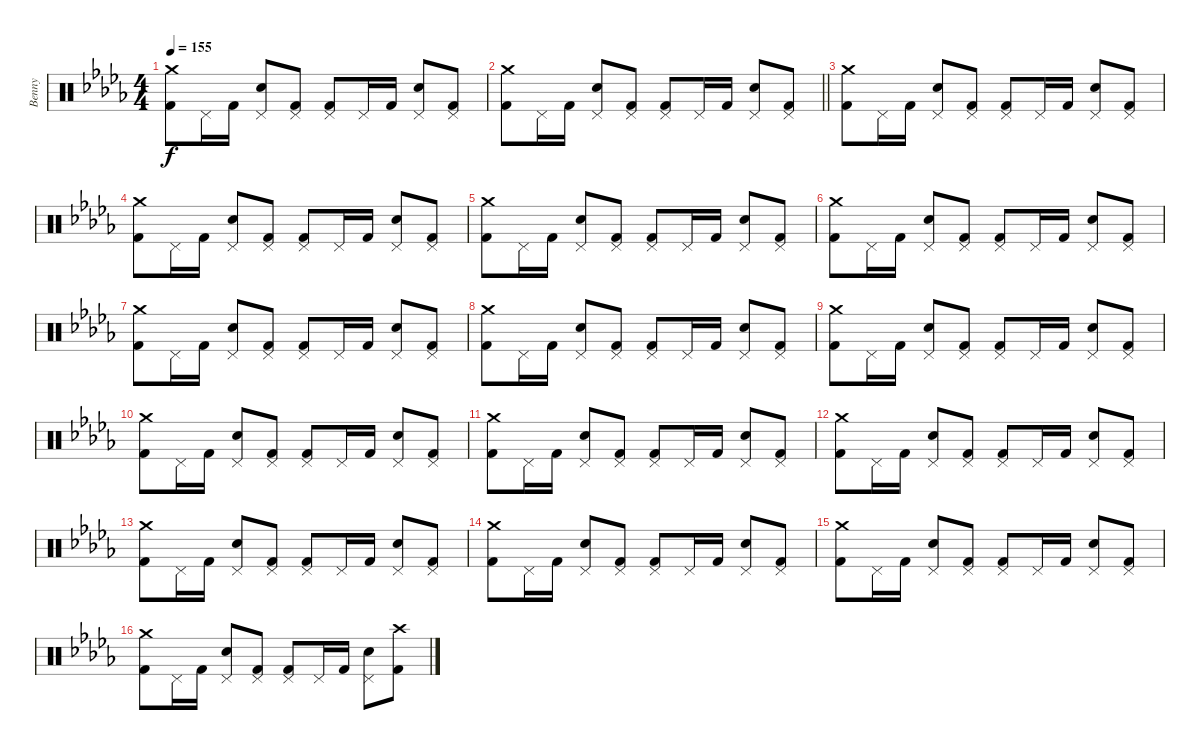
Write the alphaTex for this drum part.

\track ("Benny" "Benny") {instrument percussion}
\staff {score}
\articulation defaults
\ts (4 4)
\tempo 155
\clef neutral
\ks db
("Crash medium (hit)" "Kick (hit) 2").8{dy f} "Pedal Hi-Hat (hit)".16 "Kick (hit) 2".16 ("Pedal Hi-Hat (hit)" "Snare (hit) 2").8 ("Pedal Hi-Hat (hit)" "Kick (hit) 2").8 ("Pedal Hi-Hat (hit)" "Kick (hit) 2").8 "Pedal Hi-Hat (hit)".16 "Kick (hit) 2".16 ("Pedal Hi-Hat (hit)" "Snare (hit) 2").8 ("Pedal Hi-Hat (hit)" "Kick (hit) 2").8 |
\barLineRight lightlight
("Crash medium (hit)" "Kick (hit) 2").8 "Pedal Hi-Hat (hit)".16 "Kick (hit) 2".16 ("Pedal Hi-Hat (hit)" "Snare (hit) 2").8 ("Pedal Hi-Hat (hit)" "Kick (hit) 2").8 ("Pedal Hi-Hat (hit)" "Kick (hit) 2").8 "Pedal Hi-Hat (hit)".16 "Kick (hit) 2".16 ("Pedal Hi-Hat (hit)" "Snare (hit) 2").8 ("Pedal Hi-Hat (hit)" "Kick (hit) 2").8 |
("Crash medium (hit)" "Kick (hit) 2").8 "Pedal Hi-Hat (hit)".16 "Kick (hit) 2".16 ("Pedal Hi-Hat (hit)" "Snare (hit) 2").8 ("Pedal Hi-Hat (hit)" "Kick (hit) 2").8 ("Pedal Hi-Hat (hit)" "Kick (hit) 2").8 "Pedal Hi-Hat (hit)".16 "Kick (hit) 2".16 ("Pedal Hi-Hat (hit)" "Snare (hit) 2").8 ("Pedal Hi-Hat (hit)" "Kick (hit) 2").8 |
("Crash medium (hit)" "Kick (hit) 2").8 "Pedal Hi-Hat (hit)".16 "Kick (hit) 2".16 ("Pedal Hi-Hat (hit)" "Snare (hit) 2").8 ("Pedal Hi-Hat (hit)" "Kick (hit) 2").8 ("Pedal Hi-Hat (hit)" "Kick (hit) 2").8 "Pedal Hi-Hat (hit)".16 "Kick (hit) 2".16 ("Pedal Hi-Hat (hit)" "Snare (hit) 2").8 ("Pedal Hi-Hat (hit)" "Kick (hit) 2").8 |
("Crash medium (hit)" "Kick (hit) 2").8 "Pedal Hi-Hat (hit)".16 "Kick (hit) 2".16 ("Pedal Hi-Hat (hit)" "Snare (hit) 2").8 ("Pedal Hi-Hat (hit)" "Kick (hit) 2").8 ("Pedal Hi-Hat (hit)" "Kick (hit) 2").8 "Pedal Hi-Hat (hit)".16 "Kick (hit) 2".16 ("Pedal Hi-Hat (hit)" "Snare (hit) 2").8 ("Pedal Hi-Hat (hit)" "Kick (hit) 2").8 |
("Crash medium (hit)" "Kick (hit) 2").8 "Pedal Hi-Hat (hit)".16 "Kick (hit) 2".16 ("Pedal Hi-Hat (hit)" "Snare (hit) 2").8 ("Pedal Hi-Hat (hit)" "Kick (hit) 2").8 ("Pedal Hi-Hat (hit)" "Kick (hit) 2").8 "Pedal Hi-Hat (hit)".16 "Kick (hit) 2".16 ("Pedal Hi-Hat (hit)" "Snare (hit) 2").8 ("Pedal Hi-Hat (hit)" "Kick (hit) 2").8 |
("Crash medium (hit)" "Kick (hit) 2").8 "Pedal Hi-Hat (hit)".16 "Kick (hit) 2".16 ("Pedal Hi-Hat (hit)" "Snare (hit) 2").8 ("Pedal Hi-Hat (hit)" "Kick (hit) 2").8 ("Pedal Hi-Hat (hit)" "Kick (hit) 2").8 "Pedal Hi-Hat (hit)".16 "Kick (hit) 2".16 ("Pedal Hi-Hat (hit)" "Snare (hit) 2").8 ("Pedal Hi-Hat (hit)" "Kick (hit) 2").8 |
("Crash medium (hit)" "Kick (hit) 2").8 "Pedal Hi-Hat (hit)".16 "Kick (hit) 2".16 ("Pedal Hi-Hat (hit)" "Snare (hit) 2").8 ("Pedal Hi-Hat (hit)" "Kick (hit) 2").8 ("Pedal Hi-Hat (hit)" "Kick (hit) 2").8 "Pedal Hi-Hat (hit)".16 "Kick (hit) 2".16 ("Pedal Hi-Hat (hit)" "Snare (hit) 2").8 ("Pedal Hi-Hat (hit)" "Kick (hit) 2").8 |
("Crash medium (hit)" "Kick (hit) 2").8 "Pedal Hi-Hat (hit)".16 "Kick (hit) 2".16 ("Pedal Hi-Hat (hit)" "Snare (hit) 2").8 ("Pedal Hi-Hat (hit)" "Kick (hit) 2").8 ("Pedal Hi-Hat (hit)" "Kick (hit) 2").8 "Pedal Hi-Hat (hit)".16 "Kick (hit) 2".16 ("Pedal Hi-Hat (hit)" "Snare (hit) 2").8 ("Pedal Hi-Hat (hit)" "Kick (hit) 2").8 |
("Crash medium (hit)" "Kick (hit) 2").8 "Pedal Hi-Hat (hit)".16 "Kick (hit) 2".16 ("Pedal Hi-Hat (hit)" "Snare (hit) 2").8 ("Pedal Hi-Hat (hit)" "Kick (hit) 2").8 ("Pedal Hi-Hat (hit)" "Kick (hit) 2").8 "Pedal Hi-Hat (hit)".16 "Kick (hit) 2".16 ("Pedal Hi-Hat (hit)" "Snare (hit) 2").8 ("Pedal Hi-Hat (hit)" "Kick (hit) 2").8 |
("Crash medium (hit)" "Kick (hit) 2").8 "Pedal Hi-Hat (hit)".16 "Kick (hit) 2".16 ("Pedal Hi-Hat (hit)" "Snare (hit) 2").8 ("Pedal Hi-Hat (hit)" "Kick (hit) 2").8 ("Pedal Hi-Hat (hit)" "Kick (hit) 2").8 "Pedal Hi-Hat (hit)".16 "Kick (hit) 2".16 ("Pedal Hi-Hat (hit)" "Snare (hit) 2").8 ("Pedal Hi-Hat (hit)" "Kick (hit) 2").8 |
("Crash medium (hit)" "Kick (hit) 2").8 "Pedal Hi-Hat (hit)".16 "Kick (hit) 2".16 ("Pedal Hi-Hat (hit)" "Snare (hit) 2").8 ("Pedal Hi-Hat (hit)" "Kick (hit) 2").8 ("Pedal Hi-Hat (hit)" "Kick (hit) 2").8 "Pedal Hi-Hat (hit)".16 "Kick (hit) 2".16 ("Pedal Hi-Hat (hit)" "Snare (hit) 2").8 ("Pedal Hi-Hat (hit)" "Kick (hit) 2").8 |
("Crash medium (hit)" "Kick (hit) 2").8 "Pedal Hi-Hat (hit)".16 "Kick (hit) 2".16 ("Pedal Hi-Hat (hit)" "Snare (hit) 2").8 ("Pedal Hi-Hat (hit)" "Kick (hit) 2").8 ("Pedal Hi-Hat (hit)" "Kick (hit) 2").8 "Pedal Hi-Hat (hit)".16 "Kick (hit) 2".16 ("Pedal Hi-Hat (hit)" "Snare (hit) 2").8 ("Pedal Hi-Hat (hit)" "Kick (hit) 2").8 |
("Crash medium (hit)" "Kick (hit) 2").8 "Pedal Hi-Hat (hit)".16 "Kick (hit) 2".16 ("Pedal Hi-Hat (hit)" "Snare (hit) 2").8 ("Pedal Hi-Hat (hit)" "Kick (hit) 2").8 ("Pedal Hi-Hat (hit)" "Kick (hit) 2").8 "Pedal Hi-Hat (hit)".16 "Kick (hit) 2".16 ("Pedal Hi-Hat (hit)" "Snare (hit) 2").8 ("Pedal Hi-Hat (hit)" "Kick (hit) 2").8 |
("Crash medium (hit)" "Kick (hit) 2").8 "Pedal Hi-Hat (hit)".16 "Kick (hit) 2".16 ("Pedal Hi-Hat (hit)" "Snare (hit) 2").8 ("Pedal Hi-Hat (hit)" "Kick (hit) 2").8 ("Pedal Hi-Hat (hit)" "Kick (hit) 2").8 "Pedal Hi-Hat (hit)".16 "Kick (hit) 2".16 ("Pedal Hi-Hat (hit)" "Snare (hit) 2").8 ("Pedal Hi-Hat (hit)" "Kick (hit) 2").8 |
("Crash medium (hit)" "Kick (hit) 2").8 "Pedal Hi-Hat (hit)".16 "Kick (hit) 2".16 ("Pedal Hi-Hat (hit)" "Snare (hit) 2").8 ("Pedal Hi-Hat (hit)" "Kick (hit) 2").8 ("Pedal Hi-Hat (hit)" "Kick (hit) 2").8 "Pedal Hi-Hat (hit)".16 "Kick (hit) 2".16 ("Pedal Hi-Hat (hit)" "Snare (hit) 2").8 ("Crash high (hit)" "Kick (hit) 2").8
